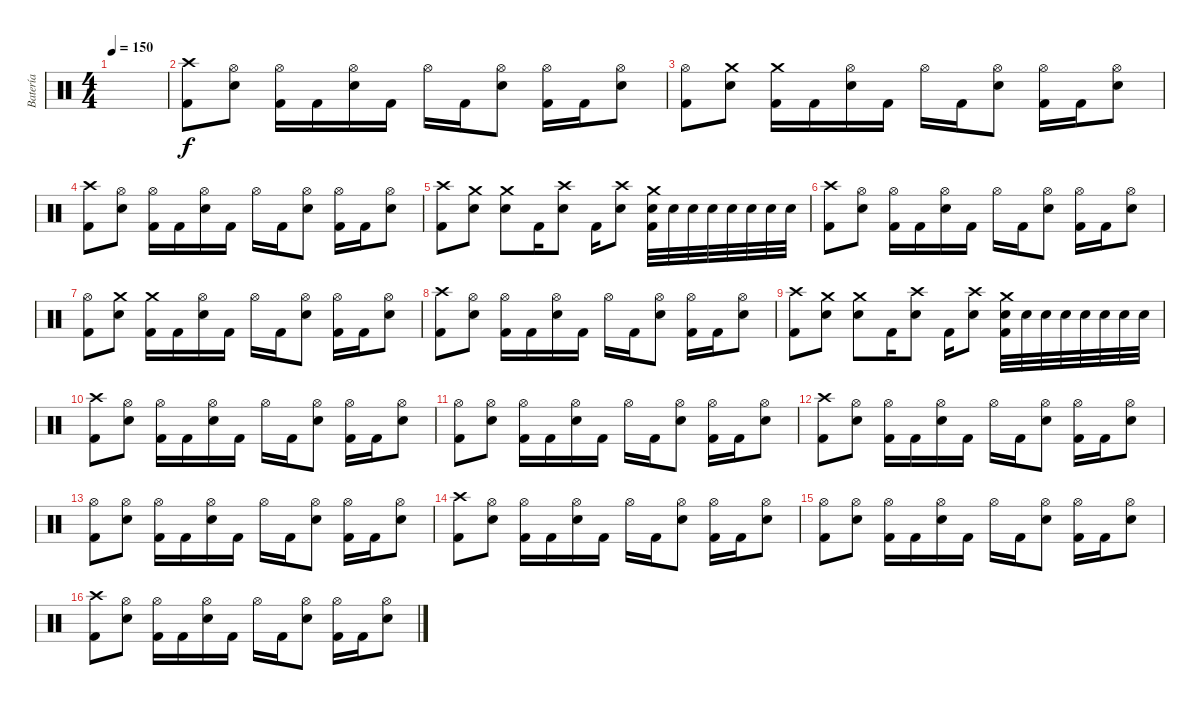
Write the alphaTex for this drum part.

\track ("Batería" "Batería") {instrument percussion}
\staff {score}
\articulation defaults
\ts (4 4)
\tempo 150
\clef neutral
\ks c
|
("Kick (hit) 2" "Crash high (hit)").8 ("Electric Snare (hit)" "Hi-Hat (open)").8 ("Kick (hit) 2" "Hi-Hat (open)").16 "Kick (hit) 2".16 ("Electric Snare (hit)" "Hi-Hat (open)").16 "Kick (hit) 2".16 "Hi-Hat (open)".16 "Kick (hit) 2".16 ("Electric Snare (hit)" "Hi-Hat (open)").8 ("Kick (hit) 2" "Hi-Hat (open)").16 "Kick (hit) 2".16 ("Electric Snare (hit)" "Hi-Hat (open)").8 |
("Kick (hit) 2" "Hi-Hat (open)").8 ("Electric Snare (hit)" "Crash medium (hit)").8 ("Kick (hit) 2" "Crash medium (hit)").16 "Kick (hit) 2".16 ("Electric Snare (hit)" "Hi-Hat (open)").16 "Kick (hit) 2".16 "Hi-Hat (open)".16 "Kick (hit) 2".16 ("Electric Snare (hit)" "Hi-Hat (open)").8 ("Kick (hit) 2" "Hi-Hat (open)").16 "Kick (hit) 2".16 ("Electric Snare (hit)" "Hi-Hat (open)").8 |
("Kick (hit) 2" "Crash high (hit)").8 ("Electric Snare (hit)" "Hi-Hat (open)").8 ("Kick (hit) 2" "Hi-Hat (open)").16 "Kick (hit) 2".16 ("Electric Snare (hit)" "Hi-Hat (open)").16 "Kick (hit) 2".16 "Hi-Hat (open)".16 "Kick (hit) 2".16 ("Electric Snare (hit)" "Hi-Hat (open)").8 ("Kick (hit) 2" "Hi-Hat (open)").16 "Kick (hit) 2".16 ("Electric Snare (hit)" "Hi-Hat (open)").8 |
("Kick (hit) 2" "Crash high (hit)").8 ("Electric Snare (hit)" "Crash medium (hit)").8 ("Electric Snare (hit)" "Crash medium (hit)").8 "Kick (hit) 2".16 ("Electric Snare (hit)" "Crash high (hit)").8 "Kick (hit) 2".16 ("Electric Snare (hit)" "Crash high (hit)").8 ("Kick (hit) 2" "Electric Snare (hit)" "Crash medium (hit)").32 "Electric Snare (hit)".32 "Electric Snare (hit)".32 "Electric Snare (hit)".32 "Electric Snare (hit)".32 "Electric Snare (hit)".32 "Electric Snare (hit)".32 "Electric Snare (hit)".32 |
("Kick (hit) 2" "Crash high (hit)").8 ("Electric Snare (hit)" "Hi-Hat (open)").8 ("Kick (hit) 2" "Hi-Hat (open)").16 "Kick (hit) 2".16 ("Electric Snare (hit)" "Hi-Hat (open)").16 "Kick (hit) 2".16 "Hi-Hat (open)".16 "Kick (hit) 2".16 ("Electric Snare (hit)" "Hi-Hat (open)").8 ("Kick (hit) 2" "Hi-Hat (open)").16 "Kick (hit) 2".16 ("Electric Snare (hit)" "Hi-Hat (open)").8 |
("Kick (hit) 2" "Hi-Hat (open)").8 ("Electric Snare (hit)" "Crash medium (hit)").8 ("Kick (hit) 2" "Crash medium (hit)").16 "Kick (hit) 2".16 ("Electric Snare (hit)" "Hi-Hat (open)").16 "Kick (hit) 2".16 "Hi-Hat (open)".16 "Kick (hit) 2".16 ("Electric Snare (hit)" "Hi-Hat (open)").8 ("Kick (hit) 2" "Hi-Hat (open)").16 "Kick (hit) 2".16 ("Electric Snare (hit)" "Hi-Hat (open)").8 |
("Kick (hit) 2" "Crash high (hit)").8 ("Electric Snare (hit)" "Hi-Hat (open)").8 ("Kick (hit) 2" "Hi-Hat (open)").16 "Kick (hit) 2".16 ("Electric Snare (hit)" "Hi-Hat (open)").16 "Kick (hit) 2".16 "Hi-Hat (open)".16 "Kick (hit) 2".16 ("Electric Snare (hit)" "Hi-Hat (open)").8 ("Kick (hit) 2" "Hi-Hat (open)").16 "Kick (hit) 2".16 ("Electric Snare (hit)" "Hi-Hat (open)").8 |
("Kick (hit) 2" "Crash high (hit)").8 ("Electric Snare (hit)" "Crash medium (hit)").8 ("Electric Snare (hit)" "Crash medium (hit)").8 "Kick (hit) 2".16 ("Electric Snare (hit)" "Crash high (hit)").8 "Kick (hit) 2".16 ("Electric Snare (hit)" "Crash high (hit)").8 ("Kick (hit) 2" "Electric Snare (hit)" "Crash medium (hit)").32 "Electric Snare (hit)".32 "Electric Snare (hit)".32 "Electric Snare (hit)".32 "Electric Snare (hit)".32 "Electric Snare (hit)".32 "Electric Snare (hit)".32 "Electric Snare (hit)".32 |
("Kick (hit) 2" "Crash high (hit)").8 ("Electric Snare (hit)" "Hi-Hat (open)").8 ("Kick (hit) 2" "Hi-Hat (open)").16 "Kick (hit) 2".16 ("Electric Snare (hit)" "Hi-Hat (open)").16 "Kick (hit) 2".16 "Hi-Hat (open)".16 "Kick (hit) 2".16 ("Electric Snare (hit)" "Hi-Hat (open)").8 ("Kick (hit) 2" "Hi-Hat (open)").16 "Kick (hit) 2".16 ("Electric Snare (hit)" "Hi-Hat (open)").8 |
("Kick (hit) 2" "Hi-Hat (open)").8 ("Electric Snare (hit)" "Hi-Hat (open)").8 ("Kick (hit) 2" "Hi-Hat (open)").16 "Kick (hit) 2".16 ("Electric Snare (hit)" "Hi-Hat (open)").16 "Kick (hit) 2".16 "Hi-Hat (open)".16 "Kick (hit) 2".16 ("Electric Snare (hit)" "Hi-Hat (open)").8 ("Kick (hit) 2" "Hi-Hat (open)").16 "Kick (hit) 2".16 ("Electric Snare (hit)" "Hi-Hat (open)").8 |
("Kick (hit) 2" "Crash high (hit)").8 ("Electric Snare (hit)" "Hi-Hat (open)").8 ("Kick (hit) 2" "Hi-Hat (open)").16 "Kick (hit) 2".16 ("Electric Snare (hit)" "Hi-Hat (open)").16 "Kick (hit) 2".16 "Hi-Hat (open)".16 "Kick (hit) 2".16 ("Electric Snare (hit)" "Hi-Hat (open)").8 ("Kick (hit) 2" "Hi-Hat (open)").16 "Kick (hit) 2".16 ("Electric Snare (hit)" "Hi-Hat (open)").8 |
("Kick (hit) 2" "Hi-Hat (open)").8 ("Electric Snare (hit)" "Hi-Hat (open)").8 ("Kick (hit) 2" "Hi-Hat (open)").16 "Kick (hit) 2".16 ("Electric Snare (hit)" "Hi-Hat (open)").16 "Kick (hit) 2".16 "Hi-Hat (open)".16 "Kick (hit) 2".16 ("Electric Snare (hit)" "Hi-Hat (open)").8 ("Kick (hit) 2" "Hi-Hat (open)").16 "Kick (hit) 2".16 ("Electric Snare (hit)" "Hi-Hat (open)").8 |
("Kick (hit) 2" "Crash high (hit)").8 ("Electric Snare (hit)" "Hi-Hat (open)").8 ("Kick (hit) 2" "Hi-Hat (open)").16 "Kick (hit) 2".16 ("Electric Snare (hit)" "Hi-Hat (open)").16 "Kick (hit) 2".16 "Hi-Hat (open)".16 "Kick (hit) 2".16 ("Electric Snare (hit)" "Hi-Hat (open)").8 ("Kick (hit) 2" "Hi-Hat (open)").16 "Kick (hit) 2".16 ("Electric Snare (hit)" "Hi-Hat (open)").8 |
("Kick (hit) 2" "Hi-Hat (open)").8 ("Electric Snare (hit)" "Hi-Hat (open)").8 ("Kick (hit) 2" "Hi-Hat (open)").16 "Kick (hit) 2".16 ("Electric Snare (hit)" "Hi-Hat (open)").16 "Kick (hit) 2".16 "Hi-Hat (open)".16 "Kick (hit) 2".16 ("Electric Snare (hit)" "Hi-Hat (open)").8 ("Kick (hit) 2" "Hi-Hat (open)").16 "Kick (hit) 2".16 ("Electric Snare (hit)" "Hi-Hat (open)").8 |
("Kick (hit) 2" "Crash high (hit)").8 ("Electric Snare (hit)" "Hi-Hat (open)").8 ("Kick (hit) 2" "Hi-Hat (open)").16 "Kick (hit) 2".16 ("Electric Snare (hit)" "Hi-Hat (open)").16 "Kick (hit) 2".16 "Hi-Hat (open)".16 "Kick (hit) 2".16 ("Electric Snare (hit)" "Hi-Hat (open)").8 ("Kick (hit) 2" "Hi-Hat (open)").16 "Kick (hit) 2".16 ("Electric Snare (hit)" "Hi-Hat (open)").8
